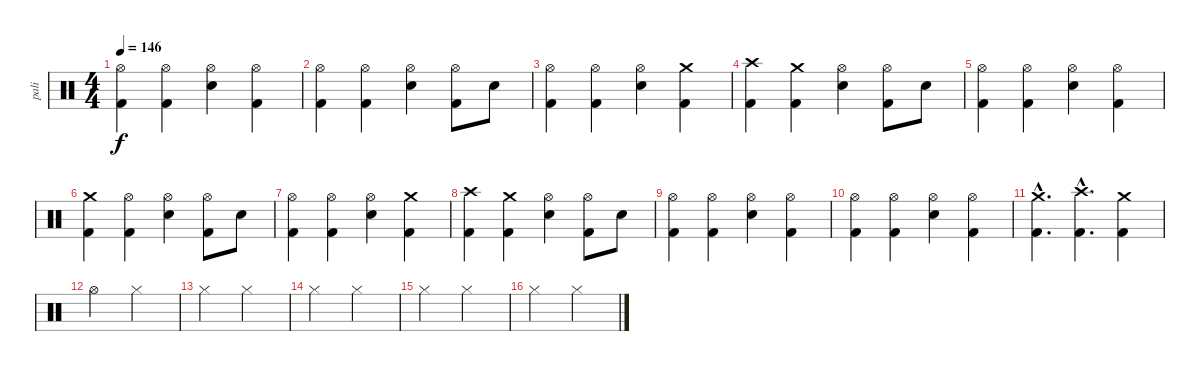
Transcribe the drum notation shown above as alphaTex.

\track ("pali" "pali") {instrument percussion}
\staff {score}
\articulation defaults
\ts (4 4)
\tempo 146
\clef neutral
\ks c
("Kick (hit) 2" "Hi-Hat (open)").4{dy f} ("Kick (hit) 2" "Hi-Hat (open)").4 ("Electric Snare (hit)" "Hi-Hat (open)").4 ("Kick (hit) 2" "Hi-Hat (open)").4 |
("Kick (hit) 2" "Hi-Hat (open)").4 ("Kick (hit) 2" "Hi-Hat (open)").4 ("Electric Snare (hit)" "Hi-Hat (open)").4 ("Kick (hit) 2" "Hi-Hat (open)").8 "Electric Snare (hit)".8 |
("Kick (hit) 2" "Hi-Hat (open)").4 ("Kick (hit) 2" "Hi-Hat (open)").4 ("Electric Snare (hit)" "Hi-Hat (open)").4 ("Kick (hit) 2" "Crash medium (hit)").4 |
("Kick (hit) 2" "Crash high (hit)").4 ("Kick (hit) 2" "Crash medium (hit)").4 ("Electric Snare (hit)" "Hi-Hat (open)").4 ("Kick (hit) 2" "Hi-Hat (open)").8 "Electric Snare (hit)".8 |
("Kick (hit) 2" "Hi-Hat (open)").4 ("Kick (hit) 2" "Hi-Hat (open)").4 ("Electric Snare (hit)" "Hi-Hat (open)").4 ("Kick (hit) 2" "Hi-Hat (open)").4 |
("Kick (hit) 2" "Crash medium (hit)").4 ("Kick (hit) 2" "Hi-Hat (open)").4 ("Electric Snare (hit)" "Hi-Hat (open)").4 ("Kick (hit) 2" "Hi-Hat (open)").8 "Electric Snare (hit)".8 |
("Kick (hit) 2" "Hi-Hat (open)").4 ("Kick (hit) 2" "Hi-Hat (open)").4 ("Electric Snare (hit)" "Hi-Hat (open)").4 ("Kick (hit) 2" "Crash medium (hit)").4 |
("Kick (hit) 2" "Crash high (hit)").4 ("Kick (hit) 2" "Crash medium (hit)").4 ("Electric Snare (hit)" "Hi-Hat (open)").4 ("Kick (hit) 2" "Hi-Hat (open)").8 "Electric Snare (hit)".8 |
("Kick (hit) 2" "Hi-Hat (open)").4 ("Kick (hit) 2" "Hi-Hat (open)").4 ("Electric Snare (hit)" "Hi-Hat (open)").4 ("Kick (hit) 2" "Hi-Hat (open)").4 |
("Kick (hit) 2" "Hi-Hat (open)").4 ("Kick (hit) 2" "Hi-Hat (open)").4 ("Electric Snare (hit)" "Hi-Hat (open)").4 ("Kick (hit) 2" "Hi-Hat (open)").4 |
("Kick (hit) 2"{hac} "Crash medium (hit)"{hac}).4{d} ("Kick (hit) 2"{hac} "Crash high (hit)"{hac}).4{d} ("Kick (hit) 2" "Crash medium (hit)").4 |
"Hi-Hat (open)".2 "Hi-Hat (closed)".2 |
"Hi-Hat (closed)".2 "Hi-Hat (closed)".2 |
"Hi-Hat (closed)".2 "Hi-Hat (closed)".2 |
"Hi-Hat (closed)".2 "Hi-Hat (closed)".2 |
"Hi-Hat (closed)".2 "Hi-Hat (closed)".2
